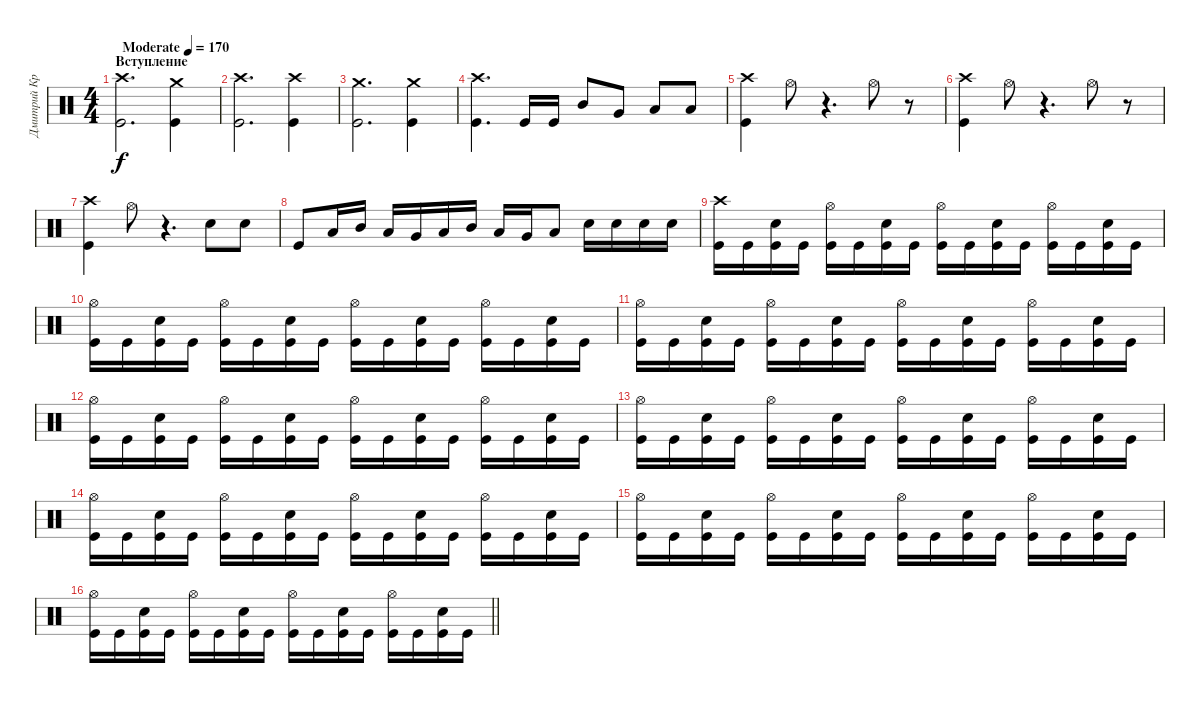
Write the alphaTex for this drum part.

\track ("Дмитрий Кривенков" "Дмитрий Кр") {instrument percussion}
\staff {score}
\articulation defaults
\ts (4 4)
\section ("" "Вступление")
\tempo (170 "Moderate")
\clef neutral
\ks c
("Crash high (hit)" "Kick (hit)").2{d dy f} ("Crash medium (hit)" "Kick (hit)").4 |
("Crash high (hit)" "Kick (hit)").2{d} ("Crash high (hit)" "Kick (hit)").4 |
("Crash medium (hit)" "Kick (hit)").2{d} ("Crash medium (hit)" "Kick (hit)").4 |
("Crash high (hit)" "Kick (hit)").4{d} "Kick (hit)".16 "Kick (hit)".16 "Mid Tom (hit)".8 "Very Low Tom (hit)".8 "Low Tom (hit)".8 "Low Floor Tom (hit)".8 |
("Crash high (hit)" "Kick (hit)").4 "Hi-Hat (open)".8 r.4{d} "Hi-Hat (open)".8 r.8 |
("Crash high (hit)" "Kick (hit)").4 "Hi-Hat (open)".8 r.4{d} "Hi-Hat (open)".8 r.8 |
("Crash high (hit)" "Kick (hit)").4 "Hi-Hat (open)".8 r.4{d} "Snare (hit) 2".8 "Snare (hit) 2".8 |
"Kick (hit)".8 "Low Tom (hit)".16 "Mid Tom (hit)".16 "Low Tom (hit)".16 "Very Low Tom (hit)".16 "Low Floor Tom (hit)".16 "Mid Tom (hit)".16 "Low Tom (hit)".16 "Very Low Tom (hit)".16 "Low Tom (hit)".8 "Snare (hit) 2".16 "Snare (hit) 2".16 "Snare (hit) 2".16 "Snare (hit) 2".16 |
("Crash high (hit)" "Kick (hit)").16 "Kick (hit)".16 ("Snare (hit) 2" "Kick (hit)").16 "Kick (hit)".16 ("Hi-Hat (open)" "Kick (hit)").16 "Kick (hit)".16 ("Snare (hit) 2" "Kick (hit)").16 "Kick (hit)".16 ("Hi-Hat (open)" "Kick (hit)").16 "Kick (hit)".16 ("Snare (hit) 2" "Kick (hit)").16 "Kick (hit)".16 ("Hi-Hat (open)" "Kick (hit)").16 "Kick (hit)".16 ("Snare (hit) 2" "Kick (hit)").16 "Kick (hit)".16 |
("Hi-Hat (open)" "Kick (hit)").16 "Kick (hit)".16 ("Snare (hit) 2" "Kick (hit)").16 "Kick (hit)".16 ("Hi-Hat (open)" "Kick (hit)").16 "Kick (hit)".16 ("Snare (hit) 2" "Kick (hit)").16 "Kick (hit)".16 ("Hi-Hat (open)" "Kick (hit)").16 "Kick (hit)".16 ("Snare (hit) 2" "Kick (hit)").16 "Kick (hit)".16 ("Hi-Hat (open)" "Kick (hit)").16 "Kick (hit)".16 ("Snare (hit) 2" "Kick (hit)").16 "Kick (hit)".16 |
("Hi-Hat (open)" "Kick (hit)").16 "Kick (hit)".16 ("Snare (hit) 2" "Kick (hit)").16 "Kick (hit)".16 ("Hi-Hat (open)" "Kick (hit)").16 "Kick (hit)".16 ("Snare (hit) 2" "Kick (hit)").16 "Kick (hit)".16 ("Hi-Hat (open)" "Kick (hit)").16 "Kick (hit)".16 ("Snare (hit) 2" "Kick (hit)").16 "Kick (hit)".16 ("Hi-Hat (open)" "Kick (hit)").16 "Kick (hit)".16 ("Snare (hit) 2" "Kick (hit)").16 "Kick (hit)".16 |
("Hi-Hat (open)" "Kick (hit)").16 "Kick (hit)".16 ("Snare (hit) 2" "Kick (hit)").16 "Kick (hit)".16 ("Hi-Hat (open)" "Kick (hit)").16 "Kick (hit)".16 ("Snare (hit) 2" "Kick (hit)").16 "Kick (hit)".16 ("Hi-Hat (open)" "Kick (hit)").16 "Kick (hit)".16 ("Snare (hit) 2" "Kick (hit)").16 "Kick (hit)".16 ("Hi-Hat (open)" "Kick (hit)").16 "Kick (hit)".16 ("Snare (hit) 2" "Kick (hit)").16 "Kick (hit)".16 |
("Hi-Hat (open)" "Kick (hit)").16 "Kick (hit)".16 ("Snare (hit) 2" "Kick (hit)").16 "Kick (hit)".16 ("Hi-Hat (open)" "Kick (hit)").16 "Kick (hit)".16 ("Snare (hit) 2" "Kick (hit)").16 "Kick (hit)".16 ("Hi-Hat (open)" "Kick (hit)").16 "Kick (hit)".16 ("Snare (hit) 2" "Kick (hit)").16 "Kick (hit)".16 ("Hi-Hat (open)" "Kick (hit)").16 "Kick (hit)".16 ("Snare (hit) 2" "Kick (hit)").16 "Kick (hit)".16 |
("Hi-Hat (open)" "Kick (hit)").16 "Kick (hit)".16 ("Snare (hit) 2" "Kick (hit)").16 "Kick (hit)".16 ("Hi-Hat (open)" "Kick (hit)").16 "Kick (hit)".16 ("Snare (hit) 2" "Kick (hit)").16 "Kick (hit)".16 ("Hi-Hat (open)" "Kick (hit)").16 "Kick (hit)".16 ("Snare (hit) 2" "Kick (hit)").16 "Kick (hit)".16 ("Hi-Hat (open)" "Kick (hit)").16 "Kick (hit)".16 ("Snare (hit) 2" "Kick (hit)").16 "Kick (hit)".16 |
("Hi-Hat (open)" "Kick (hit)").16 "Kick (hit)".16 ("Snare (hit) 2" "Kick (hit)").16 "Kick (hit)".16 ("Hi-Hat (open)" "Kick (hit)").16 "Kick (hit)".16 ("Snare (hit) 2" "Kick (hit)").16 "Kick (hit)".16 ("Hi-Hat (open)" "Kick (hit)").16 "Kick (hit)".16 ("Snare (hit) 2" "Kick (hit)").16 "Kick (hit)".16 ("Hi-Hat (open)" "Kick (hit)").16 "Kick (hit)".16 ("Snare (hit) 2" "Kick (hit)").16 "Kick (hit)".16 |
\barLineRight lightlight
("Hi-Hat (open)" "Kick (hit)").16 "Kick (hit)".16 ("Snare (hit) 2" "Kick (hit)").16 "Kick (hit)".16 ("Hi-Hat (open)" "Kick (hit)").16 "Kick (hit)".16 ("Snare (hit) 2" "Kick (hit)").16 "Kick (hit)".16 ("Hi-Hat (open)" "Kick (hit)").16 "Kick (hit)".16 ("Snare (hit) 2" "Kick (hit)").16 "Kick (hit)".16 ("Hi-Hat (open)" "Kick (hit)").16 "Kick (hit)".16 ("Snare (hit) 2" "Kick (hit)").16 "Kick (hit)".16
